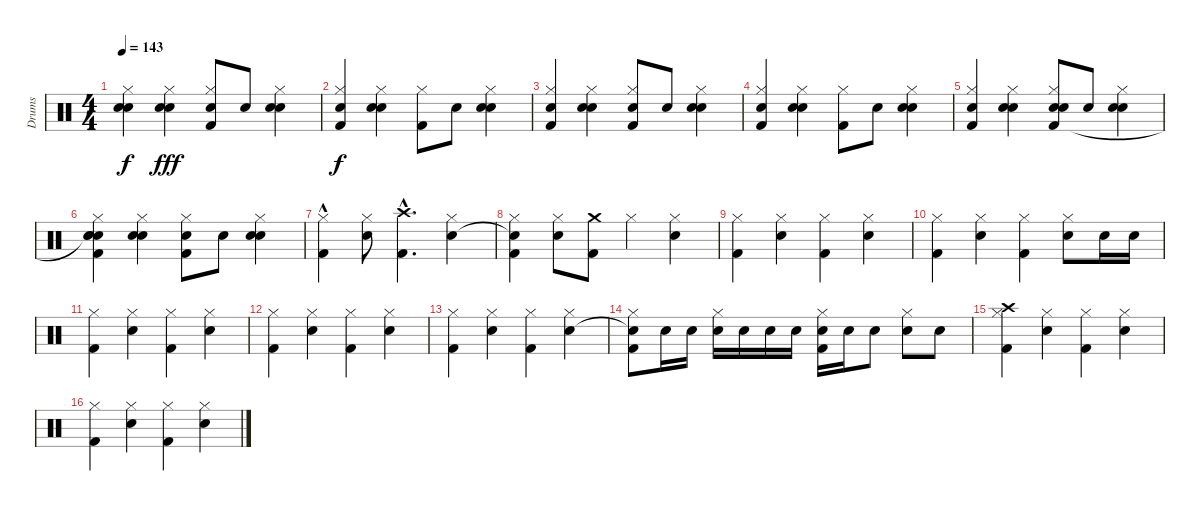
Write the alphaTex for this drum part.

\track ("Drums" "Drums") {instrument percussion}
\staff {score}
\articulation defaults
\ts (4 4)
\tempo 143
\clef neutral
\ks c
("Hand Clap (hit)" "Hi-Hat (closed)" "Electric Snare (hit)").4{dy f} ("Electric Snare (hit)" "Hi-Hat (closed)" "Hand Clap (hit)").4{dy fff} ("Kick (hit) 2" "Hi-Hat (closed)" "Hand Clap (hit)").8 "Hand Clap (hit)".8 ("Electric Snare (hit)" "Hi-Hat (closed)" "Hand Clap (hit)").4 |
("Hand Clap (hit)" "Hi-Hat (closed)" "Kick (hit) 2").4{dy f} ("Hand Clap (hit)" "Hi-Hat (closed)" "Electric Snare (hit)").4 ("Hi-Hat (closed)" "Kick (hit) 2").8 "Hand Clap (hit)".8 ("Hand Clap (hit)" "Hi-Hat (closed)" "Electric Snare (hit)").4 |
("Hand Clap (hit)" "Hi-Hat (closed)" "Kick (hit) 2").4 ("Hand Clap (hit)" "Hi-Hat (closed)" "Electric Snare (hit)").4 ("Hand Clap (hit)" "Hi-Hat (closed)" "Kick (hit) 2").8 "Hand Clap (hit)".8 ("Hand Clap (hit)" "Hi-Hat (closed)" "Electric Snare (hit)").4 |
("Hand Clap (hit)" "Hi-Hat (closed)" "Kick (hit) 2").4 ("Hand Clap (hit)" "Hi-Hat (closed)" "Electric Snare (hit)").4 ("Hi-Hat (closed)" "Kick (hit) 2").8 "Hand Clap (hit)".8 ("Hand Clap (hit)" "Hi-Hat (closed)" "Electric Snare (hit)").4 |
("Hand Clap (hit)" "Hi-Hat (closed)" "Kick (hit) 2").4 ("Hand Clap (hit)" "Hi-Hat (closed)" "Electric Snare (hit)").4 ("Hand Clap (hit)" "Hi-Hat (closed)" "Electric Snare (hit)" "Kick (hit) 2").8 "Hand Clap (hit)".8 ("Hand Clap (hit)" "Hi-Hat (closed)" "Electric Snare (hit)").4 |
("Hand Clap (hit)" "Hi-Hat (closed)" "Electric Snare (hit)" "Snare (hit)"{t} "Kick (hit) 2").4 ("Hand Clap (hit)" "Hi-Hat (closed)" "Electric Snare (hit)").4 ("Hi-Hat (closed)" "Electric Snare (hit)" "Kick (hit) 2").8 "Hand Clap (hit)".8 ("Hand Clap (hit)" "Hi-Hat (closed)" "Electric Snare (hit)").4 |
("Hi-Hat (closed)"{hac} "Kick (hit) 2").4 ("Hi-Hat (closed)" "Electric Snare (hit)").8 ("Crash high (hit)"{hac} "Kick (hit) 2"{hac}).4{d} ("Hi-Hat (closed)" "Electric Snare (hit)").4 |
("Hi-Hat (closed)" "Snare (hit)"{t} "Kick (hit) 2").4 ("Hi-Hat (closed)" "Electric Snare (hit)").8 ("Crash medium (hit)" "Kick (hit) 2").8 "Hi-Hat (closed)".4 ("Hi-Hat (closed)" "Electric Snare (hit)").4 |
("Hi-Hat (closed)" "Kick (hit) 2").4 ("Hi-Hat (closed)" "Electric Snare (hit)").4 ("Hi-Hat (closed)" "Kick (hit) 2").4 ("Hi-Hat (closed)" "Electric Snare (hit)").4 |
("Hi-Hat (closed)" "Kick (hit) 2").4 ("Hi-Hat (closed)" "Electric Snare (hit)").4 ("Hi-Hat (closed)" "Kick (hit) 2").4 ("Hi-Hat (closed)" "Electric Snare (hit)").8 "Electric Snare (hit)".16 "Electric Snare (hit)".16 |
("Hi-Hat (closed)" "Kick (hit) 2").4 ("Hi-Hat (closed)" "Electric Snare (hit)").4 ("Hi-Hat (closed)" "Kick (hit) 2").4 ("Hi-Hat (closed)" "Electric Snare (hit)").4 |
("Hi-Hat (closed)" "Kick (hit) 2").4 ("Hi-Hat (closed)" "Electric Snare (hit)").4 ("Hi-Hat (closed)" "Kick (hit) 2").4 ("Hi-Hat (closed)" "Electric Snare (hit)").4 |
("Hi-Hat (closed)" "Kick (hit) 2").4 ("Hi-Hat (closed)" "Electric Snare (hit)").4 ("Hi-Hat (closed)" "Kick (hit) 2").4 ("Hi-Hat (closed)" "Electric Snare (hit)").4 |
("Hi-Hat (closed)" "Snare (hit)"{t} "Kick (hit) 2").8 "Electric Snare (hit)".16 "Electric Snare (hit)".16 ("Hi-Hat (closed)" "Electric Snare (hit)").16 "Electric Snare (hit)".16 "Electric Snare (hit)".16 "Electric Snare (hit)".16 ("Hi-Hat (closed)" "Electric Snare (hit)" "Kick (hit) 2").16 "Electric Snare (hit)".16 "Electric Snare (hit)".8 ("Hi-Hat (closed)" "Electric Snare (hit)").8 "Electric Snare (hit)".8 |
("Hi-Hat (closed)" "Crash high (hit)" "Kick (hit) 2").4 ("Hi-Hat (closed)" "Electric Snare (hit)").4 ("Hi-Hat (closed)" "Kick (hit) 2").4 ("Hi-Hat (closed)" "Electric Snare (hit)").4 |
("Hi-Hat (closed)" "Kick (hit) 2").4 ("Hi-Hat (closed)" "Electric Snare (hit)").4 ("Hi-Hat (closed)" "Kick (hit) 2").4 ("Hi-Hat (closed)" "Electric Snare (hit)").4
